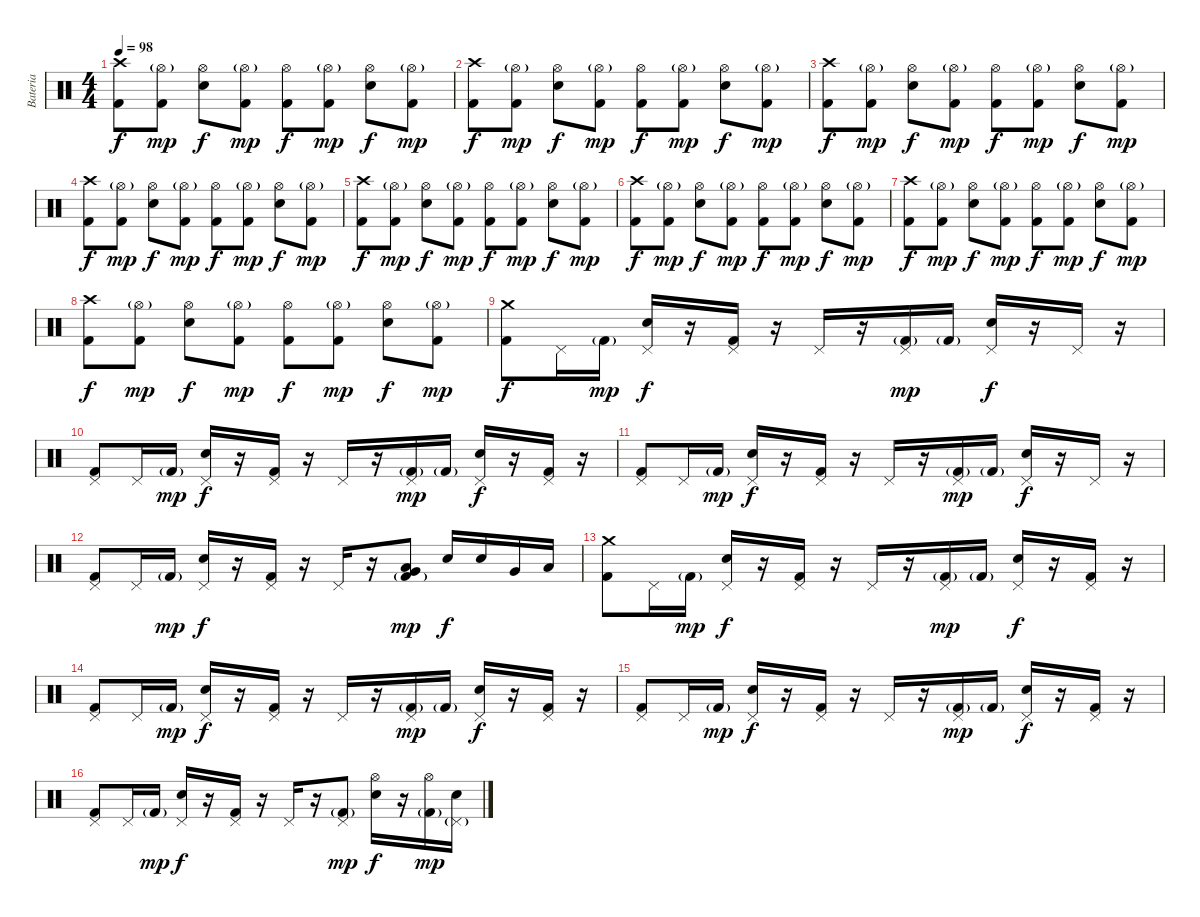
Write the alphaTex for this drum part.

\track ("Bateria" "Bateria") {instrument percussion}
\staff {score}
\articulation defaults
\ts (4 4)
\tempo 98
\clef neutral
\ks c
("Crash high (hit)" "Kick (hit) 2").8{dy f} ("Hi-Hat (open)"{g} "Kick (hit) 2").8{dy mp} ("Hi-Hat (open)" "Snare (hit) 2").8{dy f} ("Hi-Hat (open)"{g} "Kick (hit) 2").8{dy mp} ("Hi-Hat (open)" "Kick (hit) 2").8{dy f} ("Hi-Hat (open)"{g} "Kick (hit) 2").8{dy mp} ("Hi-Hat (open)" "Snare (hit) 2").8{dy f} ("Hi-Hat (open)"{g} "Kick (hit) 2").8{dy mp} |
("Crash high (hit)" "Kick (hit) 2").8{dy f} ("Hi-Hat (open)"{g} "Kick (hit) 2").8{dy mp} ("Hi-Hat (open)" "Snare (hit) 2").8{dy f} ("Hi-Hat (open)"{g} "Kick (hit) 2").8{dy mp} ("Hi-Hat (open)" "Kick (hit) 2").8{dy f} ("Hi-Hat (open)"{g} "Kick (hit) 2").8{dy mp} ("Hi-Hat (open)" "Snare (hit) 2").8{dy f} ("Hi-Hat (open)"{g} "Kick (hit) 2").8{dy mp} |
("Crash high (hit)" "Kick (hit) 2").8{dy f} ("Hi-Hat (open)"{g} "Kick (hit) 2").8{dy mp} ("Hi-Hat (open)" "Snare (hit) 2").8{dy f} ("Hi-Hat (open)"{g} "Kick (hit) 2").8{dy mp} ("Hi-Hat (open)" "Kick (hit) 2").8{dy f} ("Hi-Hat (open)"{g} "Kick (hit) 2").8{dy mp} ("Hi-Hat (open)" "Snare (hit) 2").8{dy f} ("Hi-Hat (open)"{g} "Kick (hit) 2").8{dy mp} |
("Crash high (hit)" "Kick (hit) 2").8{dy f} ("Hi-Hat (open)"{g} "Kick (hit) 2").8{dy mp} ("Hi-Hat (open)" "Snare (hit) 2").8{dy f} ("Hi-Hat (open)"{g} "Kick (hit) 2").8{dy mp} ("Hi-Hat (open)" "Kick (hit) 2").8{dy f} ("Hi-Hat (open)"{g} "Kick (hit) 2").8{dy mp} ("Hi-Hat (open)" "Snare (hit) 2").8{dy f} ("Hi-Hat (open)"{g} "Kick (hit) 2").8{dy mp} |
("Crash high (hit)" "Kick (hit) 2").8{dy f} ("Hi-Hat (open)"{g} "Kick (hit) 2").8{dy mp} ("Hi-Hat (open)" "Snare (hit) 2").8{dy f} ("Hi-Hat (open)"{g} "Kick (hit) 2").8{dy mp} ("Hi-Hat (open)" "Kick (hit) 2").8{dy f} ("Hi-Hat (open)"{g} "Kick (hit) 2").8{dy mp} ("Hi-Hat (open)" "Snare (hit) 2").8{dy f} ("Hi-Hat (open)"{g} "Kick (hit) 2").8{dy mp} |
("Crash high (hit)" "Kick (hit) 2").8{dy f} ("Hi-Hat (open)"{g} "Kick (hit) 2").8{dy mp} ("Hi-Hat (open)" "Snare (hit) 2").8{dy f} ("Hi-Hat (open)"{g} "Kick (hit) 2").8{dy mp} ("Hi-Hat (open)" "Kick (hit) 2").8{dy f} ("Hi-Hat (open)"{g} "Kick (hit) 2").8{dy mp} ("Hi-Hat (open)" "Snare (hit) 2").8{dy f} ("Hi-Hat (open)"{g} "Kick (hit) 2").8{dy mp} |
("Crash high (hit)" "Kick (hit) 2").8{dy f} ("Hi-Hat (open)"{g} "Kick (hit) 2").8{dy mp} ("Hi-Hat (open)" "Snare (hit) 2").8{dy f} ("Hi-Hat (open)"{g} "Kick (hit) 2").8{dy mp} ("Hi-Hat (open)" "Kick (hit) 2").8{dy f} ("Hi-Hat (open)"{g} "Kick (hit) 2").8{dy mp} ("Hi-Hat (open)" "Snare (hit) 2").8{dy f} ("Hi-Hat (open)"{g} "Kick (hit) 2").8{dy mp} |
("Crash high (hit)" "Kick (hit) 2").8{dy f} ("Hi-Hat (open)"{g} "Kick (hit) 2").8{dy mp} ("Hi-Hat (open)" "Snare (hit) 2").8{dy f} ("Hi-Hat (open)"{g} "Kick (hit) 2").8{dy mp} ("Hi-Hat (open)" "Kick (hit) 2").8{dy f} ("Hi-Hat (open)"{g} "Kick (hit) 2").8{dy mp} ("Hi-Hat (open)" "Snare (hit) 2").8{dy f} ("Hi-Hat (open)"{g} "Kick (hit) 2").8{dy mp} |
("Crash medium (hit)" "Kick (hit) 2").8{dy f} "Pedal Hi-Hat (hit)".16 "Kick (hit) 2"{g}.16{dy mp} ("Pedal Hi-Hat (hit)" "Snare (hit) 2").16{dy f} r.16 ("Pedal Hi-Hat (hit)" "Kick (hit) 2").16 r.16 "Pedal Hi-Hat (hit)".16 r.16 ("Pedal Hi-Hat (hit)" "Kick (hit) 2"{g}).16{dy mp} "Kick (hit) 2"{g}.16 ("Pedal Hi-Hat (hit)" "Snare (hit) 2").16{dy f} r.16 "Pedal Hi-Hat (hit)".16 r.16 |
("Pedal Hi-Hat (hit)" "Kick (hit) 2").8 "Pedal Hi-Hat (hit)".16 "Kick (hit) 2"{g}.16{dy mp} ("Pedal Hi-Hat (hit)" "Snare (hit) 2").16{dy f} r.16 ("Pedal Hi-Hat (hit)" "Kick (hit) 2").16 r.16 "Pedal Hi-Hat (hit)".16 r.16 ("Pedal Hi-Hat (hit)" "Kick (hit) 2"{g}).16{dy mp} "Kick (hit) 2"{g}.16 ("Pedal Hi-Hat (hit)" "Snare (hit) 2").16{dy f} r.16 ("Pedal Hi-Hat (hit)" "Kick (hit) 2").16 r.16 |
("Pedal Hi-Hat (hit)" "Kick (hit) 2").8 "Pedal Hi-Hat (hit)".16 "Kick (hit) 2"{g}.16{dy mp} ("Pedal Hi-Hat (hit)" "Snare (hit) 2").16{dy f} r.16 ("Pedal Hi-Hat (hit)" "Kick (hit) 2").16 r.16 "Pedal Hi-Hat (hit)".16 r.16 ("Pedal Hi-Hat (hit)" "Kick (hit) 2"{g}).16{dy mp} "Kick (hit) 2"{g}.16 ("Pedal Hi-Hat (hit)" "Snare (hit) 2").16{dy f} r.16 "Pedal Hi-Hat (hit)".16 r.16 |
("Pedal Hi-Hat (hit)" "Kick (hit) 2").8 "Pedal Hi-Hat (hit)".16 "Kick (hit) 2"{g}.16{dy mp} ("Pedal Hi-Hat (hit)" "Snare (hit) 2").16{dy f} r.16 ("Pedal Hi-Hat (hit)" "Kick (hit) 2").16 r.16 "Pedal Hi-Hat (hit)".16 r.16 ("Low Tom (hit)" "Very Low Tom (hit)" "Kick (hit) 2"{g}).8{dy mp} "Snare (hit) 2".16{dy f} "Snare (hit) 2".16 "Very Low Tom (hit)".16 "Low Floor Tom (hit)".16 |
("Crash medium (hit)" "Kick (hit) 2").8 "Pedal Hi-Hat (hit)".16 "Kick (hit) 2"{g}.16{dy mp} ("Pedal Hi-Hat (hit)" "Snare (hit) 2").16{dy f} r.16 ("Pedal Hi-Hat (hit)" "Kick (hit) 2").16 r.16 "Pedal Hi-Hat (hit)".16 r.16 ("Pedal Hi-Hat (hit)" "Kick (hit) 2"{g}).16{dy mp} "Kick (hit) 2"{g}.16 ("Pedal Hi-Hat (hit)" "Snare (hit) 2").16{dy f} r.16 ("Pedal Hi-Hat (hit)" "Kick (hit) 2").16 r.16 |
("Pedal Hi-Hat (hit)" "Kick (hit) 2").8 "Pedal Hi-Hat (hit)".16 "Kick (hit) 2"{g}.16{dy mp} ("Pedal Hi-Hat (hit)" "Snare (hit) 2").16{dy f} r.16 ("Pedal Hi-Hat (hit)" "Kick (hit) 2").16 r.16 "Pedal Hi-Hat (hit)".16 r.16 ("Pedal Hi-Hat (hit)" "Kick (hit) 2"{g}).16{dy mp} "Kick (hit) 2"{g}.16 ("Pedal Hi-Hat (hit)" "Snare (hit) 2").16{dy f} r.16 ("Pedal Hi-Hat (hit)" "Kick (hit) 2").16 r.16 |
("Pedal Hi-Hat (hit)" "Kick (hit) 2").8 "Pedal Hi-Hat (hit)".16 "Kick (hit) 2"{g}.16{dy mp} ("Pedal Hi-Hat (hit)" "Snare (hit) 2").16{dy f} r.16 ("Pedal Hi-Hat (hit)" "Kick (hit) 2").16 r.16 "Pedal Hi-Hat (hit)".16 r.16 ("Pedal Hi-Hat (hit)" "Kick (hit) 2"{g}).16{dy mp} "Kick (hit) 2"{g}.16 ("Pedal Hi-Hat (hit)" "Snare (hit) 2").16{dy f} r.16 ("Pedal Hi-Hat (hit)" "Kick (hit) 2").16 r.16 |
("Pedal Hi-Hat (hit)" "Kick (hit) 2").8 "Pedal Hi-Hat (hit)".16 "Kick (hit) 2"{g}.16{dy mp} ("Pedal Hi-Hat (hit)" "Snare (hit) 2").16{dy f} r.16 ("Pedal Hi-Hat (hit)" "Kick (hit) 2").16 r.16 "Pedal Hi-Hat (hit)".16 r.16 ("Pedal Hi-Hat (hit)" "Kick (hit) 2"{g}).8{dy mp} ("Hi-Hat (open)" "Snare (hit) 2").16{dy f} r.16 ("Hi-Hat (open)" "Kick (hit) 2"{g}).16{dy mp} ("Pedal Hi-Hat (hit)"{g} "Snare (hit) 2").16
